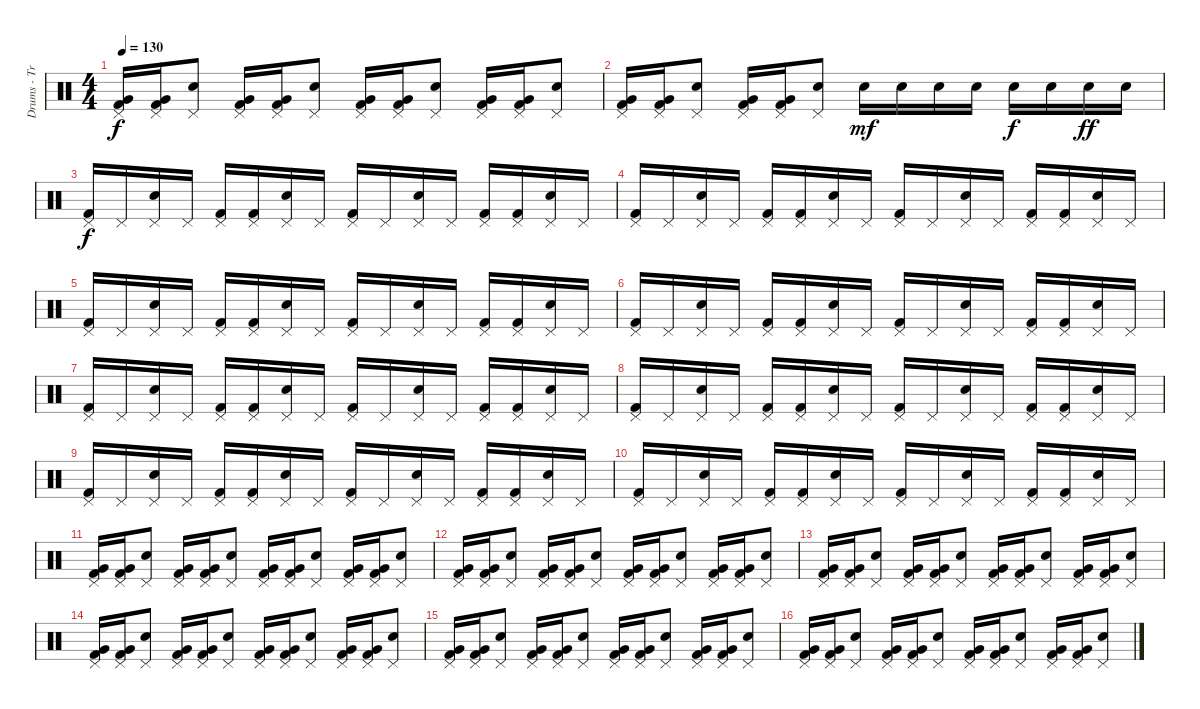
\track ("Drums - Travis Barker" "Drums - Tr") {instrument percussion}
\staff {score}
\articulation defaults
\ts (4 4)
\tempo 130
\clef neutral
\ks c
("Pedal Hi-Hat (hit)" "Very Low Tom (hit)" "Kick (hit) 2").16{dy f} ("Pedal Hi-Hat (hit)" "Very Low Tom (hit)" "Kick (hit) 2").16 ("Pedal Hi-Hat (hit)" "Electric Snare (hit)").8 ("Pedal Hi-Hat (hit)" "Very Low Tom (hit)" "Kick (hit) 2").16 ("Pedal Hi-Hat (hit)" "Very Low Tom (hit)" "Kick (hit) 2").16 ("Pedal Hi-Hat (hit)" "Electric Snare (hit)").8 ("Pedal Hi-Hat (hit)" "Very Low Tom (hit)" "Kick (hit) 2").16 ("Pedal Hi-Hat (hit)" "Very Low Tom (hit)" "Kick (hit) 2").16 ("Pedal Hi-Hat (hit)" "Electric Snare (hit)").8 ("Pedal Hi-Hat (hit)" "Very Low Tom (hit)" "Kick (hit) 2").16 ("Pedal Hi-Hat (hit)" "Very Low Tom (hit)" "Kick (hit) 2").16 ("Pedal Hi-Hat (hit)" "Electric Snare (hit)").8 |
("Pedal Hi-Hat (hit)" "Very Low Tom (hit)" "Kick (hit) 2").16 ("Pedal Hi-Hat (hit)" "Very Low Tom (hit)" "Kick (hit) 2").16 ("Pedal Hi-Hat (hit)" "Electric Snare (hit)").8 ("Pedal Hi-Hat (hit)" "Very Low Tom (hit)" "Kick (hit) 2").16 ("Pedal Hi-Hat (hit)" "Very Low Tom (hit)" "Kick (hit) 2").16 ("Pedal Hi-Hat (hit)" "Electric Snare (hit)").8 "Electric Snare (hit)".16{dy mf} "Electric Snare (hit)".16 "Electric Snare (hit)".16 "Electric Snare (hit)".16 "Electric Snare (hit)".16{dy f} "Electric Snare (hit)".16 "Electric Snare (hit)".16{dy ff} "Electric Snare (hit)".16 |
("Pedal Hi-Hat (hit)" "Kick (hit) 2").16{dy f} "Pedal Hi-Hat (hit)".16 ("Pedal Hi-Hat (hit)" "Electric Snare (hit)").16 "Pedal Hi-Hat (hit)".16 ("Pedal Hi-Hat (hit)" "Kick (hit) 2").16 ("Pedal Hi-Hat (hit)" "Kick (hit) 2").16 ("Pedal Hi-Hat (hit)" "Electric Snare (hit)").16 "Pedal Hi-Hat (hit)".16 ("Pedal Hi-Hat (hit)" "Kick (hit) 2").16 "Pedal Hi-Hat (hit)".16 ("Pedal Hi-Hat (hit)" "Electric Snare (hit)").16 "Pedal Hi-Hat (hit)".16 ("Pedal Hi-Hat (hit)" "Kick (hit) 2").16 ("Pedal Hi-Hat (hit)" "Kick (hit) 2").16 ("Pedal Hi-Hat (hit)" "Electric Snare (hit)").16 "Pedal Hi-Hat (hit)".16 |
("Pedal Hi-Hat (hit)" "Kick (hit) 2").16 "Pedal Hi-Hat (hit)".16 ("Pedal Hi-Hat (hit)" "Electric Snare (hit)").16 "Pedal Hi-Hat (hit)".16 ("Pedal Hi-Hat (hit)" "Kick (hit) 2").16 ("Pedal Hi-Hat (hit)" "Kick (hit) 2").16 ("Pedal Hi-Hat (hit)" "Electric Snare (hit)").16 "Pedal Hi-Hat (hit)".16 ("Pedal Hi-Hat (hit)" "Kick (hit) 2").16 "Pedal Hi-Hat (hit)".16 ("Pedal Hi-Hat (hit)" "Electric Snare (hit)").16 "Pedal Hi-Hat (hit)".16 ("Pedal Hi-Hat (hit)" "Kick (hit) 2").16 ("Pedal Hi-Hat (hit)" "Kick (hit) 2").16 ("Pedal Hi-Hat (hit)" "Electric Snare (hit)").16 "Pedal Hi-Hat (hit)".16 |
("Pedal Hi-Hat (hit)" "Kick (hit) 2").16 "Pedal Hi-Hat (hit)".16 ("Pedal Hi-Hat (hit)" "Electric Snare (hit)").16 "Pedal Hi-Hat (hit)".16 ("Pedal Hi-Hat (hit)" "Kick (hit) 2").16 ("Pedal Hi-Hat (hit)" "Kick (hit) 2").16 ("Pedal Hi-Hat (hit)" "Electric Snare (hit)").16 "Pedal Hi-Hat (hit)".16 ("Pedal Hi-Hat (hit)" "Kick (hit) 2").16 "Pedal Hi-Hat (hit)".16 ("Pedal Hi-Hat (hit)" "Electric Snare (hit)").16 "Pedal Hi-Hat (hit)".16 ("Pedal Hi-Hat (hit)" "Kick (hit) 2").16 ("Pedal Hi-Hat (hit)" "Kick (hit) 2").16 ("Pedal Hi-Hat (hit)" "Electric Snare (hit)").16 "Pedal Hi-Hat (hit)".16 |
("Pedal Hi-Hat (hit)" "Kick (hit) 2").16 "Pedal Hi-Hat (hit)".16 ("Pedal Hi-Hat (hit)" "Electric Snare (hit)").16 "Pedal Hi-Hat (hit)".16 ("Pedal Hi-Hat (hit)" "Kick (hit) 2").16 ("Pedal Hi-Hat (hit)" "Kick (hit) 2").16 ("Pedal Hi-Hat (hit)" "Electric Snare (hit)").16 "Pedal Hi-Hat (hit)".16 ("Pedal Hi-Hat (hit)" "Kick (hit) 2").16 "Pedal Hi-Hat (hit)".16 ("Pedal Hi-Hat (hit)" "Electric Snare (hit)").16 "Pedal Hi-Hat (hit)".16 ("Pedal Hi-Hat (hit)" "Kick (hit) 2").16 ("Pedal Hi-Hat (hit)" "Kick (hit) 2").16 ("Pedal Hi-Hat (hit)" "Electric Snare (hit)").16 "Pedal Hi-Hat (hit)".16 |
("Pedal Hi-Hat (hit)" "Kick (hit) 2").16 "Pedal Hi-Hat (hit)".16 ("Pedal Hi-Hat (hit)" "Electric Snare (hit)").16 "Pedal Hi-Hat (hit)".16 ("Pedal Hi-Hat (hit)" "Kick (hit) 2").16 ("Pedal Hi-Hat (hit)" "Kick (hit) 2").16 ("Pedal Hi-Hat (hit)" "Electric Snare (hit)").16 "Pedal Hi-Hat (hit)".16 ("Pedal Hi-Hat (hit)" "Kick (hit) 2").16 "Pedal Hi-Hat (hit)".16 ("Pedal Hi-Hat (hit)" "Electric Snare (hit)").16 "Pedal Hi-Hat (hit)".16 ("Pedal Hi-Hat (hit)" "Kick (hit) 2").16 ("Pedal Hi-Hat (hit)" "Kick (hit) 2").16 ("Pedal Hi-Hat (hit)" "Electric Snare (hit)").16 "Pedal Hi-Hat (hit)".16 |
("Pedal Hi-Hat (hit)" "Kick (hit) 2").16 "Pedal Hi-Hat (hit)".16 ("Pedal Hi-Hat (hit)" "Electric Snare (hit)").16 "Pedal Hi-Hat (hit)".16 ("Pedal Hi-Hat (hit)" "Kick (hit) 2").16 ("Pedal Hi-Hat (hit)" "Kick (hit) 2").16 ("Pedal Hi-Hat (hit)" "Electric Snare (hit)").16 "Pedal Hi-Hat (hit)".16 ("Pedal Hi-Hat (hit)" "Kick (hit) 2").16 "Pedal Hi-Hat (hit)".16 ("Pedal Hi-Hat (hit)" "Electric Snare (hit)").16 "Pedal Hi-Hat (hit)".16 ("Pedal Hi-Hat (hit)" "Kick (hit) 2").16 ("Pedal Hi-Hat (hit)" "Kick (hit) 2").16 ("Pedal Hi-Hat (hit)" "Electric Snare (hit)").16 "Pedal Hi-Hat (hit)".16 |
("Pedal Hi-Hat (hit)" "Kick (hit) 2").16 "Pedal Hi-Hat (hit)".16 ("Pedal Hi-Hat (hit)" "Electric Snare (hit)").16 "Pedal Hi-Hat (hit)".16 ("Pedal Hi-Hat (hit)" "Kick (hit) 2").16 ("Pedal Hi-Hat (hit)" "Kick (hit) 2").16 ("Pedal Hi-Hat (hit)" "Electric Snare (hit)").16 "Pedal Hi-Hat (hit)".16 ("Pedal Hi-Hat (hit)" "Kick (hit) 2").16 "Pedal Hi-Hat (hit)".16 ("Pedal Hi-Hat (hit)" "Electric Snare (hit)").16 "Pedal Hi-Hat (hit)".16 ("Pedal Hi-Hat (hit)" "Kick (hit) 2").16 ("Pedal Hi-Hat (hit)" "Kick (hit) 2").16 ("Pedal Hi-Hat (hit)" "Electric Snare (hit)").16 "Pedal Hi-Hat (hit)".16 |
("Pedal Hi-Hat (hit)" "Kick (hit) 2").16 "Pedal Hi-Hat (hit)".16 ("Pedal Hi-Hat (hit)" "Electric Snare (hit)").16 "Pedal Hi-Hat (hit)".16 ("Pedal Hi-Hat (hit)" "Kick (hit) 2").16 ("Pedal Hi-Hat (hit)" "Kick (hit) 2").16 ("Pedal Hi-Hat (hit)" "Electric Snare (hit)").16 "Pedal Hi-Hat (hit)".16 ("Pedal Hi-Hat (hit)" "Kick (hit) 2").16 "Pedal Hi-Hat (hit)".16 ("Pedal Hi-Hat (hit)" "Electric Snare (hit)").16 "Pedal Hi-Hat (hit)".16 ("Pedal Hi-Hat (hit)" "Kick (hit) 2").16 ("Pedal Hi-Hat (hit)" "Kick (hit) 2").16 ("Pedal Hi-Hat (hit)" "Electric Snare (hit)").16 "Pedal Hi-Hat (hit)".16 |
("Pedal Hi-Hat (hit)" "Very Low Tom (hit)" "Kick (hit) 2").16 ("Pedal Hi-Hat (hit)" "Very Low Tom (hit)" "Kick (hit) 2").16 ("Pedal Hi-Hat (hit)" "Electric Snare (hit)").8 ("Pedal Hi-Hat (hit)" "Very Low Tom (hit)" "Kick (hit) 2").16 ("Pedal Hi-Hat (hit)" "Very Low Tom (hit)" "Kick (hit) 2").16 ("Pedal Hi-Hat (hit)" "Electric Snare (hit)").8 ("Pedal Hi-Hat (hit)" "Very Low Tom (hit)" "Kick (hit) 2").16 ("Pedal Hi-Hat (hit)" "Very Low Tom (hit)" "Kick (hit) 2").16 ("Pedal Hi-Hat (hit)" "Electric Snare (hit)").8 ("Pedal Hi-Hat (hit)" "Very Low Tom (hit)" "Kick (hit) 2").16 ("Pedal Hi-Hat (hit)" "Very Low Tom (hit)" "Kick (hit) 2").16 ("Pedal Hi-Hat (hit)" "Electric Snare (hit)").8 |
("Pedal Hi-Hat (hit)" "Very Low Tom (hit)" "Kick (hit) 2").16 ("Pedal Hi-Hat (hit)" "Very Low Tom (hit)" "Kick (hit) 2").16 ("Pedal Hi-Hat (hit)" "Electric Snare (hit)").8 ("Pedal Hi-Hat (hit)" "Very Low Tom (hit)" "Kick (hit) 2").16 ("Pedal Hi-Hat (hit)" "Very Low Tom (hit)" "Kick (hit) 2").16 ("Pedal Hi-Hat (hit)" "Electric Snare (hit)").8 ("Pedal Hi-Hat (hit)" "Very Low Tom (hit)" "Kick (hit) 2").16 ("Pedal Hi-Hat (hit)" "Very Low Tom (hit)" "Kick (hit) 2").16 ("Pedal Hi-Hat (hit)" "Electric Snare (hit)").8 ("Pedal Hi-Hat (hit)" "Very Low Tom (hit)" "Kick (hit) 2").16 ("Pedal Hi-Hat (hit)" "Very Low Tom (hit)" "Kick (hit) 2").16 ("Pedal Hi-Hat (hit)" "Electric Snare (hit)").8 |
("Pedal Hi-Hat (hit)" "Very Low Tom (hit)" "Kick (hit) 2").16 ("Pedal Hi-Hat (hit)" "Very Low Tom (hit)" "Kick (hit) 2").16 ("Pedal Hi-Hat (hit)" "Electric Snare (hit)").8 ("Pedal Hi-Hat (hit)" "Very Low Tom (hit)" "Kick (hit) 2").16 ("Pedal Hi-Hat (hit)" "Very Low Tom (hit)" "Kick (hit) 2").16 ("Pedal Hi-Hat (hit)" "Electric Snare (hit)").8 ("Pedal Hi-Hat (hit)" "Very Low Tom (hit)" "Kick (hit) 2").16 ("Pedal Hi-Hat (hit)" "Very Low Tom (hit)" "Kick (hit) 2").16 ("Pedal Hi-Hat (hit)" "Electric Snare (hit)").8 ("Pedal Hi-Hat (hit)" "Very Low Tom (hit)" "Kick (hit) 2").16 ("Pedal Hi-Hat (hit)" "Very Low Tom (hit)" "Kick (hit) 2").16 ("Pedal Hi-Hat (hit)" "Electric Snare (hit)").8 |
("Pedal Hi-Hat (hit)" "Very Low Tom (hit)" "Kick (hit) 2").16 ("Pedal Hi-Hat (hit)" "Very Low Tom (hit)" "Kick (hit) 2").16 ("Pedal Hi-Hat (hit)" "Electric Snare (hit)").8 ("Pedal Hi-Hat (hit)" "Very Low Tom (hit)" "Kick (hit) 2").16 ("Pedal Hi-Hat (hit)" "Very Low Tom (hit)" "Kick (hit) 2").16 ("Pedal Hi-Hat (hit)" "Electric Snare (hit)").8 ("Pedal Hi-Hat (hit)" "Very Low Tom (hit)" "Kick (hit) 2").16 ("Pedal Hi-Hat (hit)" "Very Low Tom (hit)" "Kick (hit) 2").16 ("Pedal Hi-Hat (hit)" "Electric Snare (hit)").8 ("Pedal Hi-Hat (hit)" "Very Low Tom (hit)" "Kick (hit) 2").16 ("Pedal Hi-Hat (hit)" "Very Low Tom (hit)" "Kick (hit) 2").16 ("Pedal Hi-Hat (hit)" "Electric Snare (hit)").8 |
("Pedal Hi-Hat (hit)" "Very Low Tom (hit)" "Kick (hit) 2").16 ("Pedal Hi-Hat (hit)" "Very Low Tom (hit)" "Kick (hit) 2").16 ("Pedal Hi-Hat (hit)" "Electric Snare (hit)").8 ("Pedal Hi-Hat (hit)" "Very Low Tom (hit)" "Kick (hit) 2").16 ("Pedal Hi-Hat (hit)" "Very Low Tom (hit)" "Kick (hit) 2").16 ("Pedal Hi-Hat (hit)" "Electric Snare (hit)").8 ("Pedal Hi-Hat (hit)" "Very Low Tom (hit)" "Kick (hit) 2").16 ("Pedal Hi-Hat (hit)" "Very Low Tom (hit)" "Kick (hit) 2").16 ("Pedal Hi-Hat (hit)" "Electric Snare (hit)").8 ("Pedal Hi-Hat (hit)" "Very Low Tom (hit)" "Kick (hit) 2").16 ("Pedal Hi-Hat (hit)" "Very Low Tom (hit)" "Kick (hit) 2").16 ("Pedal Hi-Hat (hit)" "Electric Snare (hit)").8 |
("Pedal Hi-Hat (hit)" "Very Low Tom (hit)" "Kick (hit) 2").16 ("Pedal Hi-Hat (hit)" "Very Low Tom (hit)" "Kick (hit) 2").16 ("Pedal Hi-Hat (hit)" "Electric Snare (hit)").8 ("Pedal Hi-Hat (hit)" "Very Low Tom (hit)" "Kick (hit) 2").16 ("Pedal Hi-Hat (hit)" "Very Low Tom (hit)" "Kick (hit) 2").16 ("Pedal Hi-Hat (hit)" "Electric Snare (hit)").8 ("Pedal Hi-Hat (hit)" "Very Low Tom (hit)" "Kick (hit) 2").16 ("Pedal Hi-Hat (hit)" "Very Low Tom (hit)" "Kick (hit) 2").16 ("Pedal Hi-Hat (hit)" "Electric Snare (hit)").8 ("Pedal Hi-Hat (hit)" "Very Low Tom (hit)" "Kick (hit) 2").16 ("Pedal Hi-Hat (hit)" "Very Low Tom (hit)" "Kick (hit) 2").16 ("Pedal Hi-Hat (hit)" "Electric Snare (hit)").8
